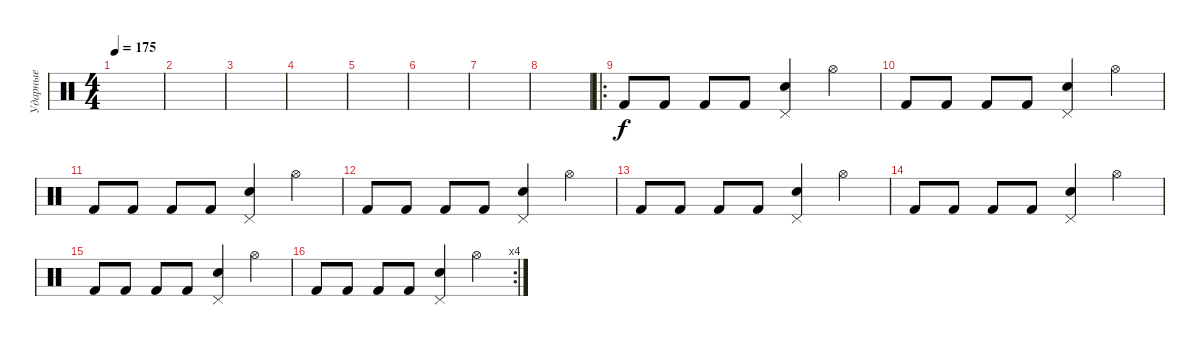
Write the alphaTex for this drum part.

\track ("Ударные" "Ударные") {instrument percussion}
\staff {score}
\articulation defaults
\ts (4 4)
\tempo 175
\clef neutral
\ks c
|
|
|
|
|
|
|
|
\ro "Kick (hit) 2".8 "Kick (hit) 2".8 "Kick (hit) 2".8 "Kick (hit) 2".8
("Pedal Hi-Hat (hit)" "Electric Snare (hit)").4 "Hi-Hat (open)".4 |
"Kick (hit) 2".8 "Kick (hit) 2".8 "Kick (hit) 2".8 "Kick (hit) 2".8 ("Pedal Hi-Hat (hit)" "Electric Snare (hit)").4 "Hi-Hat (open)".4 |
"Kick (hit) 2".8 "Kick (hit) 2".8 "Kick (hit) 2".8 "Kick (hit) 2".8 ("Pedal Hi-Hat (hit)" "Electric Snare (hit)").4 "Hi-Hat (open)".4 |
"Kick (hit) 2".8 "Kick (hit) 2".8 "Kick (hit) 2".8 "Kick (hit) 2".8 ("Pedal Hi-Hat (hit)" "Electric Snare (hit)").4 "Hi-Hat (open)".4 |
"Kick (hit) 2".8 "Kick (hit) 2".8 "Kick (hit) 2".8 "Kick (hit) 2".8 ("Pedal Hi-Hat (hit)" "Electric Snare (hit)").4 "Hi-Hat (open)".4 |
"Kick (hit) 2".8 "Kick (hit) 2".8 "Kick (hit) 2".8 "Kick (hit) 2".8 ("Pedal Hi-Hat (hit)" "Electric Snare (hit)").4 "Hi-Hat (open)".4 |
"Kick (hit) 2".8 "Kick (hit) 2".8 "Kick (hit) 2".8 "Kick (hit) 2".8 ("Pedal Hi-Hat (hit)" "Electric Snare (hit)").4 "Hi-Hat (open)".4 |
\rc 4 "Kick (hit) 2".8 "Kick (hit) 2".8 "Kick (hit) 2".8 "Kick (hit) 2".8
("Pedal Hi-Hat (hit)" "Electric Snare (hit)").4 "Hi-Hat (open)".4
